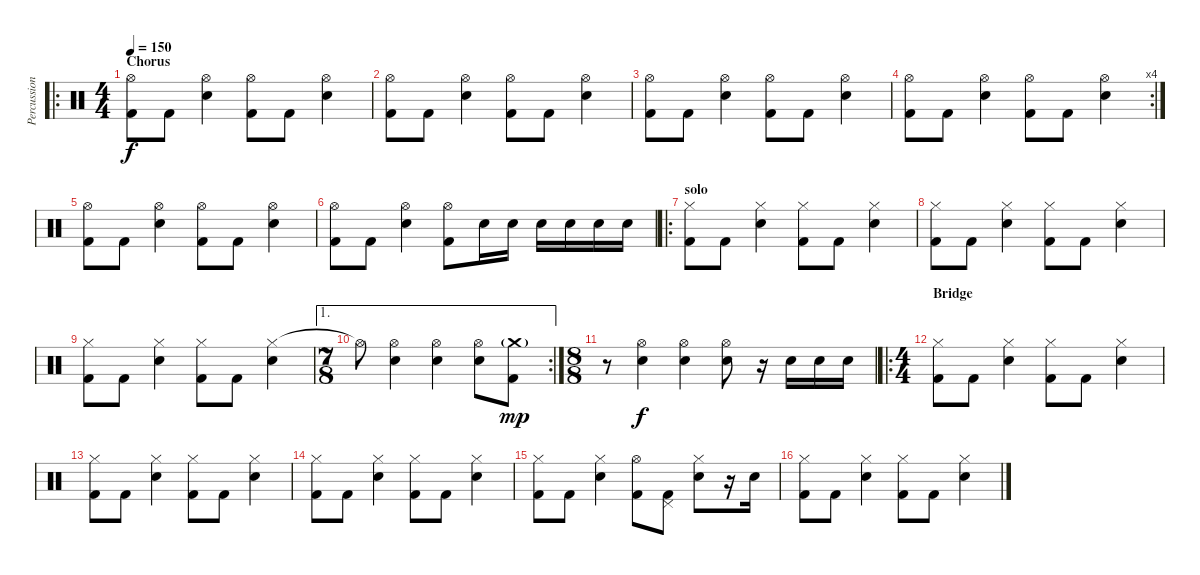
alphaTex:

\track ("Percussion" "Percussion") {instrument percussion}
\staff {score}
\articulation defaults
\ro
\ts (4 4)
\section ("" "Chorus")
\tempo 150
\clef neutral
\ks c
("Hi-Hat (open)" "Kick (hit) 2").8{dy f} "Kick (hit) 2".8 ("Hi-Hat (open)" "Electric Snare (hit)").4 ("Hi-Hat (open)" "Kick (hit) 2").8 "Kick (hit) 2".8 ("Hi-Hat (open)" "Electric Snare (hit)").4 |
("Hi-Hat (open)" "Kick (hit) 2").8 "Kick (hit) 2".8 ("Hi-Hat (open)" "Electric Snare (hit)").4 ("Hi-Hat (open)" "Kick (hit) 2").8 "Kick (hit) 2".8 ("Hi-Hat (open)" "Electric Snare (hit)").4 |
("Hi-Hat (open)" "Kick (hit) 2").8 "Kick (hit) 2".8 ("Hi-Hat (open)" "Electric Snare (hit)").4 ("Hi-Hat (open)" "Kick (hit) 2").8 "Kick (hit) 2".8 ("Hi-Hat (open)" "Electric Snare (hit)").4 |
\rc 4
("Hi-Hat (open)" "Kick (hit) 2").8 "Kick (hit) 2".8 ("Hi-Hat (open)" "Electric Snare (hit)").4 ("Hi-Hat (open)" "Kick (hit) 2").8 "Kick (hit) 2".8 ("Hi-Hat (open)" "Electric Snare (hit)").4 |
("Hi-Hat (open)" "Kick (hit) 2").8 "Kick (hit) 2".8 ("Hi-Hat (open)" "Electric Snare (hit)").4 ("Hi-Hat (open)" "Kick (hit) 2").8 "Kick (hit) 2".8 ("Hi-Hat (open)" "Electric Snare (hit)").4 |
("Hi-Hat (open)" "Kick (hit) 2").8 "Kick (hit) 2".8 ("Hi-Hat (open)" "Electric Snare (hit)").4 ("Hi-Hat (open)" "Kick (hit) 2").8 "Electric Snare (hit)".16 "Electric Snare (hit)".16 "Electric Snare (hit)".16 "Electric Snare (hit)".16 "Electric Snare (hit)".16 "Electric Snare (hit)".16 |
\ro
\section ("" "solo")
("Hi-Hat (closed)" "Kick (hit) 2").8 "Kick (hit) 2".8 ("Hi-Hat (closed)" "Electric Snare (hit)").4 ("Hi-Hat (closed)" "Kick (hit) 2").8 "Kick (hit) 2".8 ("Hi-Hat (closed)" "Electric Snare (hit)").4 |
("Hi-Hat (closed)" "Kick (hit) 2").8 "Kick (hit) 2".8 ("Hi-Hat (closed)" "Electric Snare (hit)").4 ("Hi-Hat (closed)" "Kick (hit) 2").8 "Kick (hit) 2".8 ("Hi-Hat (closed)" "Electric Snare (hit)").4 |
("Hi-Hat (closed)" "Kick (hit) 2").8 "Kick (hit) 2".8 ("Hi-Hat (closed)" "Electric Snare (hit)").4 ("Hi-Hat (closed)" "Kick (hit) 2").8 "Kick (hit) 2".8 ("Hi-Hat (closed)" "Electric Snare (hit)").4 |
\ae 1
\rc 2
\ts (7 8)
"Hi-Hat (open)"{t}.8 ("Hi-Hat (open)" "Electric Snare (hit)").4 ("Hi-Hat (open)" "Electric Snare (hit)").4 ("Hi-Hat (open)" "Electric Snare (hit)").8 ("Crash medium (hit)"{g} "Kick (hit) 2").8{dy mp} |
\ts (8 8)
r.8 ("Hi-Hat (open)" "Electric Snare (hit)").4{dy f} ("Hi-Hat (open)" "Electric Snare (hit)").4 ("Hi-Hat (open)" "Electric Snare (hit)").8 r.16 "Electric Snare (hit)".16 "Electric Snare (hit)".16 "Electric Snare (hit)".16 |
\ro
\ts (4 4)
\section ("" "Bridge")
("Hi-Hat (closed)" "Kick (hit) 2").8 "Kick (hit) 2".8 ("Hi-Hat (closed)" "Electric Snare (hit)").4 ("Hi-Hat (closed)" "Kick (hit) 2").8 "Kick (hit) 2".8 ("Hi-Hat (closed)" "Electric Snare (hit)").4 |
("Hi-Hat (closed)" "Kick (hit) 2").8 "Kick (hit) 2".8 ("Hi-Hat (closed)" "Electric Snare (hit)").4 ("Hi-Hat (closed)" "Kick (hit) 2").8 "Kick (hit) 2".8 ("Hi-Hat (closed)" "Electric Snare (hit)").4 |
("Hi-Hat (closed)" "Kick (hit) 2").8 "Kick (hit) 2".8 ("Hi-Hat (closed)" "Electric Snare (hit)").4 ("Hi-Hat (closed)" "Kick (hit) 2").8 "Kick (hit) 2".8 ("Hi-Hat (closed)" "Electric Snare (hit)").4 |
("Hi-Hat (closed)" "Kick (hit) 2").8 "Kick (hit) 2".8 ("Hi-Hat (closed)" "Electric Snare (hit)").4 ("Hi-Hat (open)" "Kick (hit) 2").8 ("Pedal Hi-Hat (hit)" "Kick (hit) 2").8 ("Hi-Hat (closed)" "Electric Snare (hit)").8 r.16 "Electric Snare (hit)".16 |
("Hi-Hat (closed)" "Kick (hit) 2").8 "Kick (hit) 2".8 ("Hi-Hat (closed)" "Electric Snare (hit)").4 ("Hi-Hat (closed)" "Kick (hit) 2").8 "Kick (hit) 2".8 ("Hi-Hat (closed)" "Electric Snare (hit)").4
